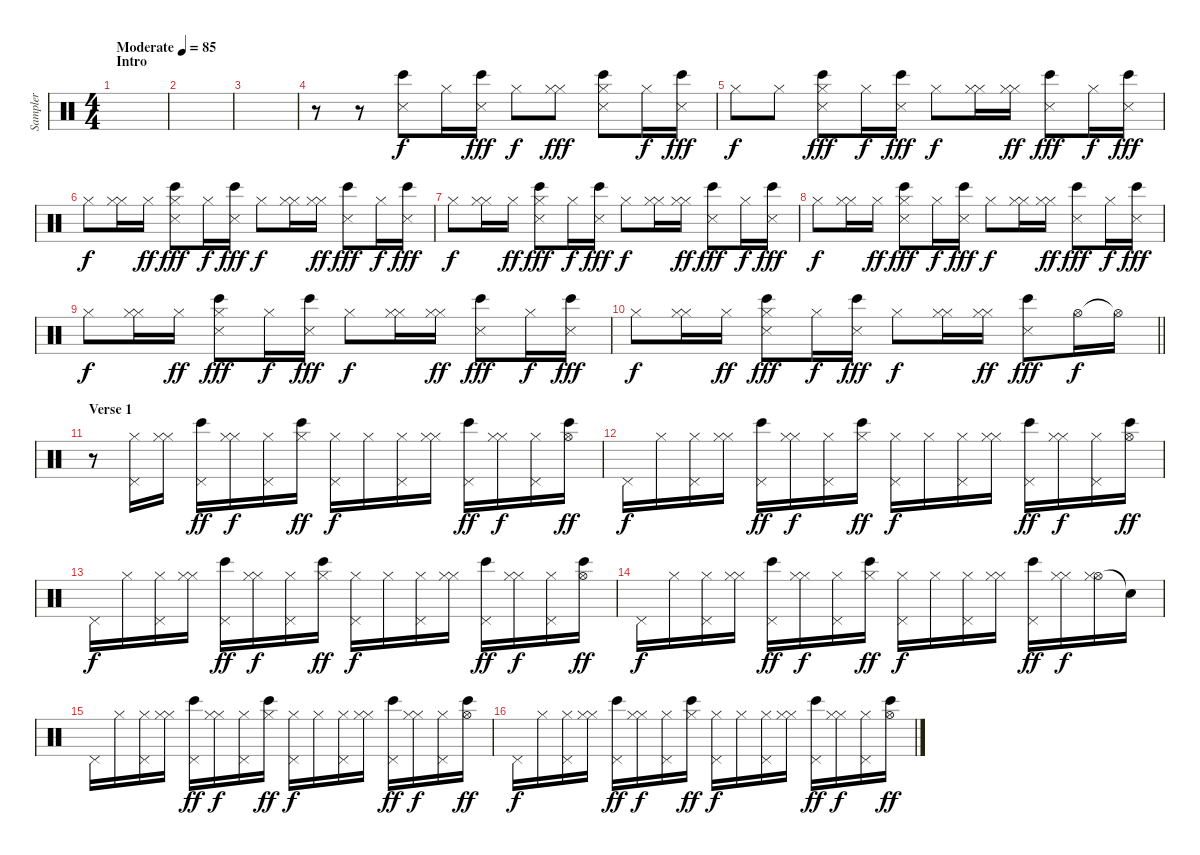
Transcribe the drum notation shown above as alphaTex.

\track ("Sampler" "Sampler") {instrument percussion}
\staff {score}
\articulation defaults
\ts (4 4)
\section ("" "Intro")
\tempo (85 "Moderate")
\clef neutral
\ks c
|
|
|
r.8 r.8 ("Snare (side stick) 3" "Bongo High (hit)").8 "Hi-Hat (closed)".16{dy f} ("Snare (side stick) 3" "Bongo High (hit)").16{dy fff} "Hi-Hat (closed)".8{dy f} ("Hi-Hat (closed)" "Hi-Hat (closed)").8{dy fff} ("Hi-Hat (closed)" "Snare (side stick) 3" "Bongo High (hit)").8 "Hi-Hat (closed)".16{dy f} ("Snare (side stick) 3" "Bongo High (hit)").16{dy fff} |
"Hi-Hat (closed)".8{dy f} "Hi-Hat (closed)".8 ("Hi-Hat (closed)" "Snare (side stick) 3" "Bongo High (hit)").8{dy fff} "Hi-Hat (closed)".16{dy f} ("Snare (side stick) 3" "Bongo High (hit)").16{dy fff} "Hi-Hat (closed)".8{dy f} ("Hi-Hat (closed)" "Hi-Hat (closed)").16 ("Hi-Hat (closed)" "Hi-Hat (closed)").16{dy ff} ("Snare (side stick) 3" "Bongo High (hit)").8{dy fff} "Hi-Hat (closed)".16{dy f} ("Snare (side stick) 3" "Bongo High (hit)").16{dy fff} |
"Hi-Hat (closed)".8{dy f} ("Hi-Hat (closed)" "Hi-Hat (closed)").16 "Hi-Hat (closed)".16{dy ff} ("Hi-Hat (closed)" "Snare (side stick) 3" "Bongo High (hit)").8{dy fff} "Hi-Hat (closed)".16{dy f} ("Snare (side stick) 3" "Bongo High (hit)").16{dy fff} "Hi-Hat (closed)".8{dy f} ("Hi-Hat (closed)" "Hi-Hat (closed)").16 ("Hi-Hat (closed)" "Hi-Hat (closed)").16{dy ff} ("Snare (side stick) 3" "Bongo High (hit)").8{dy fff} "Hi-Hat (closed)".16{dy f} ("Snare (side stick) 3" "Bongo High (hit)").16{dy fff} |
"Hi-Hat (closed)".8{dy f} ("Hi-Hat (closed)" "Hi-Hat (closed)").16 "Hi-Hat (closed)".16{dy ff} ("Hi-Hat (closed)" "Snare (side stick) 3" "Bongo High (hit)").8{dy fff} "Hi-Hat (closed)".16{dy f} ("Snare (side stick) 3" "Bongo High (hit)").16{dy fff} "Hi-Hat (closed)".8{dy f} ("Hi-Hat (closed)" "Hi-Hat (closed)").16 ("Hi-Hat (closed)" "Hi-Hat (closed)").16{dy ff} ("Snare (side stick) 3" "Bongo High (hit)").8{dy fff} "Hi-Hat (closed)".16{dy f} ("Snare (side stick) 3" "Bongo High (hit)").16{dy fff} |
"Hi-Hat (closed)".8{dy f} ("Hi-Hat (closed)" "Hi-Hat (closed)").16 "Hi-Hat (closed)".16{dy ff} ("Hi-Hat (closed)" "Snare (side stick) 3" "Bongo High (hit)").8{dy fff} "Hi-Hat (closed)".16{dy f} ("Snare (side stick) 3" "Bongo High (hit)").16{dy fff} "Hi-Hat (closed)".8{dy f} ("Hi-Hat (closed)" "Hi-Hat (closed)").16 ("Hi-Hat (closed)" "Hi-Hat (closed)").16{dy ff} ("Snare (side stick) 3" "Bongo High (hit)").8{dy fff} "Hi-Hat (closed)".16{dy f} ("Snare (side stick) 3" "Bongo High (hit)").16{dy fff} |
"Hi-Hat (closed)".8{dy f} ("Hi-Hat (closed)" "Hi-Hat (closed)").16 "Hi-Hat (closed)".16{dy ff} ("Hi-Hat (closed)" "Snare (side stick) 3" "Bongo High (hit)").8{dy fff} "Hi-Hat (closed)".16{dy f} ("Snare (side stick) 3" "Bongo High (hit)").16{dy fff} "Hi-Hat (closed)".8{dy f} ("Hi-Hat (closed)" "Hi-Hat (closed)").16 ("Hi-Hat (closed)" "Hi-Hat (closed)").16{dy ff} ("Snare (side stick) 3" "Bongo High (hit)").8{dy fff} "Hi-Hat (closed)".16{dy f} ("Snare (side stick) 3" "Bongo High (hit)").16{dy fff} |
\barLineRight lightlight "Hi-Hat (closed)".8{dy f}
("Hi-Hat (closed)" "Hi-Hat (closed)").16 "Hi-Hat (closed)".16{dy ff} ("Hi-Hat (closed)" "Snare (side stick) 3" "Bongo High (hit)").8{dy fff} "Hi-Hat (closed)".16{dy f} ("Snare (side stick) 3" "Bongo High (hit)").16{dy fff} "Hi-Hat (closed)".8{dy f} ("Hi-Hat (closed)" "Hi-Hat (closed)").16 ("Hi-Hat (closed)" "Hi-Hat (closed)").16{dy ff} ("Snare (side stick) 3" "Bongo High (hit)").8{dy fff} "Hi-Hat (open)".16{dy f} "Hi-Hat (open)"{t}.16 |
\section ("" "Verse 1")
r.8 ("Pedal Hi-Hat (hit)" "Hi-Hat (closed)").16 ("Hi-Hat (closed)" "Hi-Hat (closed)").16 ("Pedal Hi-Hat (hit)" "Bongo High (hit)").16{dy ff} ("Hi-Hat (closed)" "Hi-Hat (closed)").16{dy f} ("Pedal Hi-Hat (hit)" "Hi-Hat (closed)").16 ("Hi-Hat (closed)" "Bongo High (hit)").16{dy ff} ("Pedal Hi-Hat (hit)" "Hi-Hat (closed)").16{dy f} "Hi-Hat (closed)".16 ("Pedal Hi-Hat (hit)" "Hi-Hat (closed)").16 ("Hi-Hat (closed)" "Hi-Hat (closed)").16 ("Pedal Hi-Hat (hit)" "Bongo High (hit)").16{dy ff} ("Hi-Hat (closed)" "Hi-Hat (closed)").16{dy f} ("Pedal Hi-Hat (hit)" "Hi-Hat (closed)").16 ("Hi-Hat (open)" "Bongo High (hit)").16{dy ff} |
"Pedal Hi-Hat (hit)".16{dy f} "Hi-Hat (closed)".16 ("Pedal Hi-Hat (hit)" "Hi-Hat (closed)").16 ("Hi-Hat (closed)" "Hi-Hat (closed)").16 ("Pedal Hi-Hat (hit)" "Bongo High (hit)").16{dy ff} ("Hi-Hat (closed)" "Hi-Hat (closed)").16{dy f} ("Pedal Hi-Hat (hit)" "Hi-Hat (closed)").16 ("Hi-Hat (closed)" "Bongo High (hit)").16{dy ff} ("Pedal Hi-Hat (hit)" "Hi-Hat (closed)").16{dy f} "Hi-Hat (closed)".16 ("Pedal Hi-Hat (hit)" "Hi-Hat (closed)").16 ("Hi-Hat (closed)" "Hi-Hat (closed)").16 ("Pedal Hi-Hat (hit)" "Bongo High (hit)").16{dy ff} ("Hi-Hat (closed)" "Hi-Hat (closed)").16{dy f} ("Pedal Hi-Hat (hit)" "Hi-Hat (closed)").16 ("Hi-Hat (open)" "Bongo High (hit)").16{dy ff} |
"Pedal Hi-Hat (hit)".16{dy f} "Hi-Hat (closed)".16 ("Pedal Hi-Hat (hit)" "Hi-Hat (closed)").16 ("Hi-Hat (closed)" "Hi-Hat (closed)").16 ("Pedal Hi-Hat (hit)" "Bongo High (hit)").16{dy ff} ("Hi-Hat (closed)" "Hi-Hat (closed)").16{dy f} ("Pedal Hi-Hat (hit)" "Hi-Hat (closed)").16 ("Hi-Hat (closed)" "Bongo High (hit)").16{dy ff} ("Pedal Hi-Hat (hit)" "Hi-Hat (closed)").16{dy f} "Hi-Hat (closed)".16 ("Pedal Hi-Hat (hit)" "Hi-Hat (closed)").16 ("Hi-Hat (closed)" "Hi-Hat (closed)").16 ("Pedal Hi-Hat (hit)" "Bongo High (hit)").16{dy ff} ("Hi-Hat (closed)" "Hi-Hat (closed)").16{dy f} ("Pedal Hi-Hat (hit)" "Hi-Hat (closed)").16 ("Hi-Hat (open)" "Bongo High (hit)").16{dy ff} |
"Pedal Hi-Hat (hit)".16{dy f} "Hi-Hat (closed)".16 ("Pedal Hi-Hat (hit)" "Hi-Hat (closed)").16 ("Hi-Hat (closed)" "Hi-Hat (closed)").16 ("Pedal Hi-Hat (hit)" "Bongo High (hit)").16{dy ff} ("Hi-Hat (closed)" "Hi-Hat (closed)").16{dy f} ("Pedal Hi-Hat (hit)" "Hi-Hat (closed)").16 ("Hi-Hat (closed)" "Bongo High (hit)").16{dy ff} ("Pedal Hi-Hat (hit)" "Hi-Hat (closed)").16{dy f} "Hi-Hat (closed)".16 ("Pedal Hi-Hat (hit)" "Hi-Hat (closed)").16 ("Hi-Hat (closed)" "Hi-Hat (closed)").16 ("Pedal Hi-Hat (hit)" "Bongo High (hit)").16{dy ff} ("Hi-Hat (closed)" "Hi-Hat (closed)").16{dy f} ("Hi-Hat (open)" "Hi-Hat (closed)").16 "Snare (hit)"{t}.16 |
"Pedal Hi-Hat (hit)".16 "Hi-Hat (closed)".16 ("Pedal Hi-Hat (hit)" "Hi-Hat (closed)").16 ("Hi-Hat (closed)" "Hi-Hat (closed)").16 ("Pedal Hi-Hat (hit)" "Bongo High (hit)").16{dy ff} ("Hi-Hat (closed)" "Hi-Hat (closed)").16{dy f} ("Pedal Hi-Hat (hit)" "Hi-Hat (closed)").16 ("Hi-Hat (closed)" "Bongo High (hit)").16{dy ff} ("Pedal Hi-Hat (hit)" "Hi-Hat (closed)").16{dy f} "Hi-Hat (closed)".16 ("Pedal Hi-Hat (hit)" "Hi-Hat (closed)").16 ("Hi-Hat (closed)" "Hi-Hat (closed)").16 ("Pedal Hi-Hat (hit)" "Bongo High (hit)").16{dy ff} ("Hi-Hat (closed)" "Hi-Hat (closed)").16{dy f} ("Pedal Hi-Hat (hit)" "Hi-Hat (closed)").16 ("Hi-Hat (open)" "Bongo High (hit)").16{dy ff} |
"Pedal Hi-Hat (hit)".16{dy f} "Hi-Hat (closed)".16 ("Pedal Hi-Hat (hit)" "Hi-Hat (closed)").16 ("Hi-Hat (closed)" "Hi-Hat (closed)").16 ("Pedal Hi-Hat (hit)" "Bongo High (hit)").16{dy ff} ("Hi-Hat (closed)" "Hi-Hat (closed)").16{dy f} ("Pedal Hi-Hat (hit)" "Hi-Hat (closed)").16 ("Hi-Hat (closed)" "Bongo High (hit)").16{dy ff} ("Pedal Hi-Hat (hit)" "Hi-Hat (closed)").16{dy f} "Hi-Hat (closed)".16 ("Pedal Hi-Hat (hit)" "Hi-Hat (closed)").16 ("Hi-Hat (closed)" "Hi-Hat (closed)").16 ("Pedal Hi-Hat (hit)" "Bongo High (hit)").16{dy ff} ("Hi-Hat (closed)" "Hi-Hat (closed)").16{dy f} ("Pedal Hi-Hat (hit)" "Hi-Hat (closed)").16 ("Hi-Hat (open)" "Bongo High (hit)").16{dy ff}
